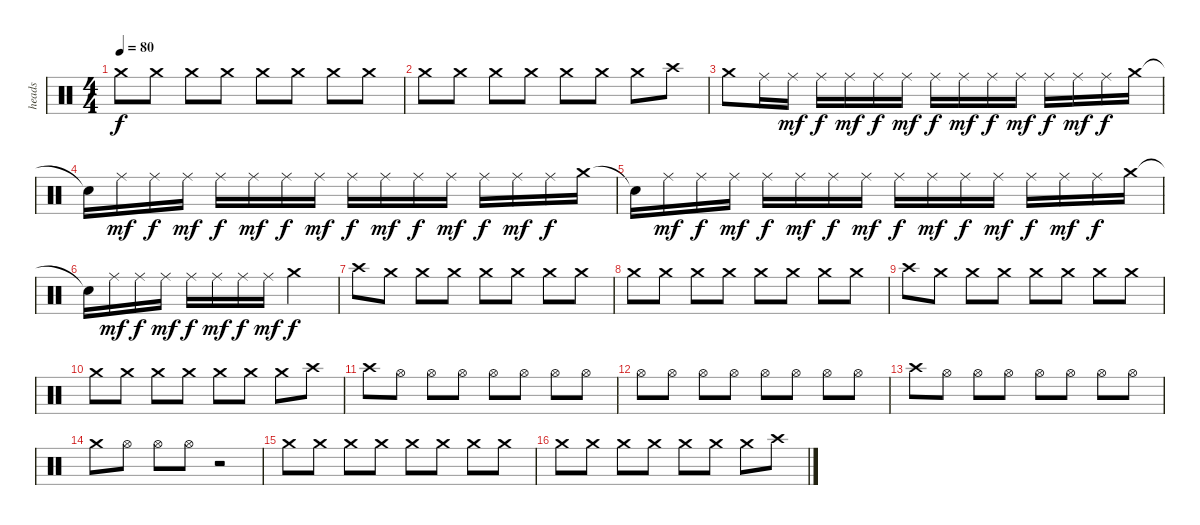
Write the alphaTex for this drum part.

\track ("heads" "heads") {instrument percussion}
\staff {score}
\articulation defaults
\ts (4 4)
\tempo 80
\clef neutral
\ks c "Crash medium (hit)".8{dy f} "Crash medium (hit)".8 "Crash medium (hit)".8 "Crash medium (hit)".8 "Crash medium (hit)".8 "Crash medium (hit)".8 "Crash medium (hit)".8 "Crash medium (hit)".8
|
"Crash medium (hit)".8 "Crash medium (hit)".8 "Crash medium (hit)".8 "Crash medium (hit)".8 "Crash medium (hit)".8 "Crash medium (hit)".8 "Crash medium (hit)".8 "Crash high (hit)".8 |
"Crash medium (hit)".8 "Ride (middle)".16 "Ride (middle)".16{dy mf} "Ride (middle)".16{dy f} "Ride (middle)".16{dy mf} "Ride (middle)".16{dy f} "Ride (middle)".16{dy mf} "Ride (middle)".16{dy f} "Ride (middle)".16{dy mf} "Ride (middle)".16{dy f} "Ride (middle)".16{dy mf} "Ride (middle)".16{dy f} "Ride (middle)".16{dy mf} "Ride (middle)".16{dy f} "Crash medium (hit)".16 |
"Snare (hit)"{t}.16 "Ride (middle)".16{dy mf} "Ride (middle)".16{dy f} "Ride (middle)".16{dy mf} "Ride (middle)".16{dy f} "Ride (middle)".16{dy mf} "Ride (middle)".16{dy f} "Ride (middle)".16{dy mf} "Ride (middle)".16{dy f} "Ride (middle)".16{dy mf} "Ride (middle)".16{dy f} "Ride (middle)".16{dy mf} "Ride (middle)".16{dy f} "Ride (middle)".16{dy mf} "Ride (middle)".16{dy f} "Crash medium (hit)".16 |
"Snare (hit)"{t}.16 "Ride (middle)".16{dy mf} "Ride (middle)".16{dy f} "Ride (middle)".16{dy mf} "Ride (middle)".16{dy f} "Ride (middle)".16{dy mf} "Ride (middle)".16{dy f} "Ride (middle)".16{dy mf} "Ride (middle)".16{dy f} "Ride (middle)".16{dy mf} "Ride (middle)".16{dy f} "Ride (middle)".16{dy mf} "Ride (middle)".16{dy f} "Ride (middle)".16{dy mf} "Ride (middle)".16{dy f} "Crash medium (hit)".16 |
"Snare (hit)"{t}.16 "Ride (middle)".16{dy mf} "Ride (middle)".16{dy f} "Ride (middle)".16{dy mf} "Ride (middle)".16{dy f} "Ride (middle)".16{dy mf} "Ride (middle)".16{dy f} "Ride (middle)".16{dy mf} "Crash medium (hit)".2{dy f} |
"Crash high (hit)".8 "Crash medium (hit)".8 "Crash medium (hit)".8 "Crash medium (hit)".8 "Crash medium (hit)".8 "Crash medium (hit)".8 "Crash medium (hit)".8 "Crash medium (hit)".8 |
"Crash medium (hit)".8 "Crash medium (hit)".8 "Crash medium (hit)".8 "Crash medium (hit)".8 "Crash medium (hit)".8 "Crash medium (hit)".8 "Crash medium (hit)".8 "Crash medium (hit)".8 |
"Crash high (hit)".8 "Crash medium (hit)".8 "Crash medium (hit)".8 "Crash medium (hit)".8 "Crash medium (hit)".8 "Crash medium (hit)".8 "Crash medium (hit)".8 "Crash medium (hit)".8 |
"Crash medium (hit)".8 "Crash medium (hit)".8 "Crash medium (hit)".8 "Crash medium (hit)".8 "Crash medium (hit)".8 "Crash medium (hit)".8 "Crash medium (hit)".8 "Crash high (hit)".8 |
"Crash high (hit)".8 "Hi-Hat (open)".8 "Hi-Hat (open)".8 "Hi-Hat (open)".8 "Hi-Hat (open)".8 "Hi-Hat (open)".8 "Hi-Hat (open)".8 "Hi-Hat (open)".8 |
"Hi-Hat (open)".8 "Hi-Hat (open)".8 "Hi-Hat (open)".8 "Hi-Hat (open)".8 "Hi-Hat (open)".8 "Hi-Hat (open)".8 "Hi-Hat (open)".8 "Hi-Hat (open)".8 |
"Crash high (hit)".8 "Hi-Hat (open)".8 "Hi-Hat (open)".8 "Hi-Hat (open)".8 "Hi-Hat (open)".8 "Hi-Hat (open)".8 "Hi-Hat (open)".8 "Hi-Hat (open)".8 |
"Crash medium (hit)".8 "Hi-Hat (open)".8 "Hi-Hat (open)".8 "Hi-Hat (open)".8 r.2 |
"Crash medium (hit)".8 "Crash medium (hit)".8 "Crash medium (hit)".8 "Crash medium (hit)".8 "Crash medium (hit)".8 "Crash medium (hit)".8 "Crash medium (hit)".8 "Crash medium (hit)".8 |
"Crash medium (hit)".8 "Crash medium (hit)".8 "Crash medium (hit)".8 "Crash medium (hit)".8 "Crash medium (hit)".8 "Crash medium (hit)".8 "Crash medium (hit)".8 "Crash high (hit)".8
